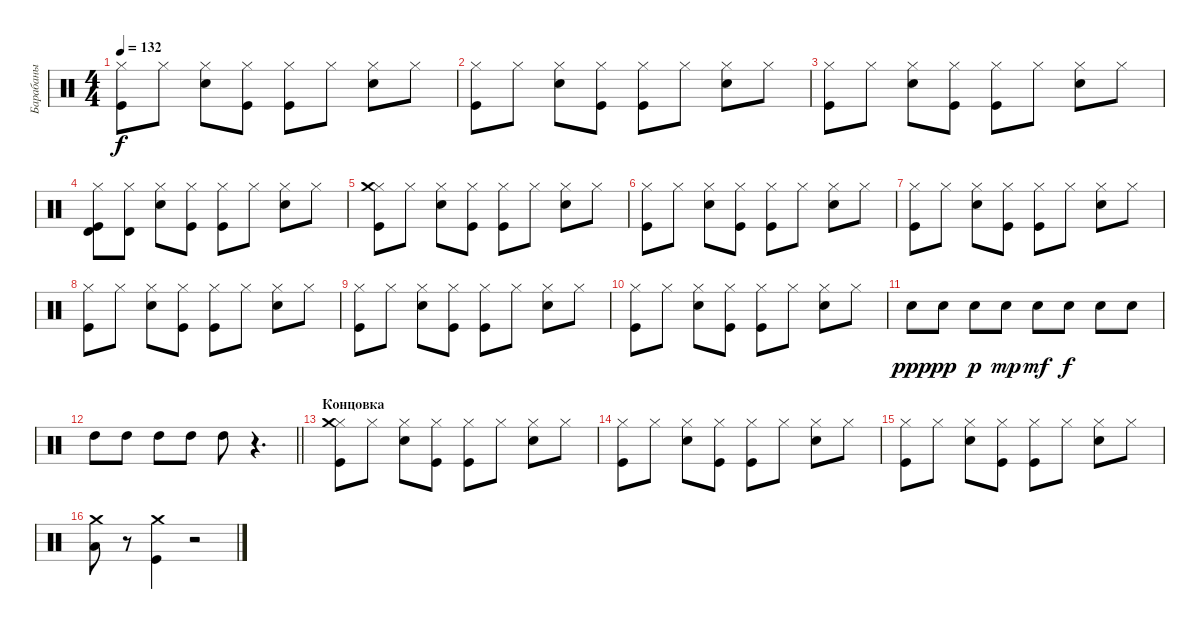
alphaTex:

\track ("Барабаны" "Барабаны") {instrument percussion}
\staff {score}
\articulation defaults
\ts (4 4)
\tempo 132
\clef neutral
\ks c
("Kick (hit)" "Hi-Hat (closed)").8{dy f} "Hi-Hat (closed)".8 ("Snare (hit) 2" "Hi-Hat (closed)").8 ("Kick (hit)" "Hi-Hat (closed)").8 ("Kick (hit)" "Hi-Hat (closed)").8 "Hi-Hat (closed)".8 ("Snare (hit) 2" "Hi-Hat (closed)").8 "Hi-Hat (closed)".8 |
("Kick (hit)" "Hi-Hat (closed)").8 "Hi-Hat (closed)".8 ("Snare (hit) 2" "Hi-Hat (closed)").8 ("Kick (hit)" "Hi-Hat (closed)").8 ("Kick (hit)" "Hi-Hat (closed)").8 "Hi-Hat (closed)".8 ("Snare (hit) 2" "Hi-Hat (closed)").8 "Hi-Hat (closed)".8 |
("Kick (hit)" "Hi-Hat (closed)").8 "Hi-Hat (closed)".8 ("Snare (hit) 2" "Hi-Hat (closed)").8 ("Kick (hit)" "Hi-Hat (closed)").8 ("Kick (hit)" "Hi-Hat (closed)").8 "Hi-Hat (closed)".8 ("Snare (hit) 2" "Hi-Hat (closed)").8 "Hi-Hat (closed)".8 |
("Kick (hit)" "Hi-Hat (closed)" "Timbale high (hit)").8 ("Hi-Hat (closed)" "Timbale high (hit)").8 ("Snare (hit) 2" "Hi-Hat (closed)").8 ("Kick (hit)" "Hi-Hat (closed)").8 ("Kick (hit)" "Hi-Hat (closed)").8 "Hi-Hat (closed)".8 ("Snare (hit) 2" "Hi-Hat (closed)").8 "Hi-Hat (closed)".8 |
("Kick (hit)" "Hi-Hat (closed)" "Crash medium (hit)").8 "Hi-Hat (closed)".8 ("Snare (hit) 2" "Hi-Hat (closed)").8 ("Kick (hit)" "Hi-Hat (closed)").8 ("Kick (hit)" "Hi-Hat (closed)").8 "Hi-Hat (closed)".8 ("Snare (hit) 2" "Hi-Hat (closed)").8 "Hi-Hat (closed)".8 |
("Kick (hit)" "Hi-Hat (closed)").8 "Hi-Hat (closed)".8 ("Snare (hit) 2" "Hi-Hat (closed)").8 ("Kick (hit)" "Hi-Hat (closed)").8 ("Kick (hit)" "Hi-Hat (closed)").8 "Hi-Hat (closed)".8 ("Snare (hit) 2" "Hi-Hat (closed)").8 "Hi-Hat (closed)".8 |
("Kick (hit)" "Hi-Hat (closed)").8 "Hi-Hat (closed)".8 ("Snare (hit) 2" "Hi-Hat (closed)").8 ("Kick (hit)" "Hi-Hat (closed)").8 ("Kick (hit)" "Hi-Hat (closed)").8 "Hi-Hat (closed)".8 ("Snare (hit) 2" "Hi-Hat (closed)").8 "Hi-Hat (closed)".8 |
("Kick (hit)" "Hi-Hat (closed)").8 "Hi-Hat (closed)".8 ("Snare (hit) 2" "Hi-Hat (closed)").8 ("Kick (hit)" "Hi-Hat (closed)").8 ("Kick (hit)" "Hi-Hat (closed)").8 "Hi-Hat (closed)".8 ("Snare (hit) 2" "Hi-Hat (closed)").8 "Hi-Hat (closed)".8 |
("Kick (hit)" "Hi-Hat (closed)").8 "Hi-Hat (closed)".8 ("Snare (hit) 2" "Hi-Hat (closed)").8 ("Kick (hit)" "Hi-Hat (closed)").8 ("Kick (hit)" "Hi-Hat (closed)").8 "Hi-Hat (closed)".8 ("Snare (hit) 2" "Hi-Hat (closed)").8 "Hi-Hat (closed)".8 |
("Kick (hit)" "Hi-Hat (closed)").8 "Hi-Hat (closed)".8 ("Snare (hit) 2" "Hi-Hat (closed)").8 ("Kick (hit)" "Hi-Hat (closed)").8 ("Kick (hit)" "Hi-Hat (closed)").8 "Hi-Hat (closed)".8 ("Snare (hit) 2" "Hi-Hat (closed)").8 "Hi-Hat (closed)".8 |
"Snare (hit) 2".8{dy ppp} "Snare (hit) 2".8{dy pp} "Snare (hit) 2".8{dy p} "Snare (hit) 2".8{dy mp} "Snare (hit) 2".8{dy mf} "Snare (hit) 2".8{dy f} "Snare (hit) 2".8 "Snare (hit) 2".8 |
\barLineRight lightlight "High Tom (hit)".8 "High Tom (hit)".8 "High Tom (hit)".8 "High Tom (hit)".8 "High Tom (hit)".8
r.4{d} |
\section ("" "Концовка")
("Kick (hit)" "Hi-Hat (closed)" "Crash medium (hit)").8 "Hi-Hat (closed)".8 ("Snare (hit) 2" "Hi-Hat (closed)").8 ("Kick (hit)" "Hi-Hat (closed)").8 ("Kick (hit)" "Hi-Hat (closed)").8 "Hi-Hat (closed)".8 ("Snare (hit) 2" "Hi-Hat (closed)").8 "Hi-Hat (closed)".8 |
("Kick (hit)" "Hi-Hat (closed)").8 "Hi-Hat (closed)".8 ("Snare (hit) 2" "Hi-Hat (closed)").8 ("Kick (hit)" "Hi-Hat (closed)").8 ("Kick (hit)" "Hi-Hat (closed)").8 "Hi-Hat (closed)".8 ("Snare (hit) 2" "Hi-Hat (closed)").8 "Hi-Hat (closed)".8 |
("Kick (hit)" "Hi-Hat (closed)").8 "Hi-Hat (closed)".8 ("Snare (hit) 2" "Hi-Hat (closed)").8 ("Kick (hit)" "Hi-Hat (closed)").8 ("Kick (hit)" "Hi-Hat (closed)").8 "Hi-Hat (closed)".8 ("Snare (hit) 2" "Hi-Hat (closed)").8 "Hi-Hat (closed)".8 |
("Low Floor Tom (hit)" "Crash medium (hit)").8 r.8 ("Kick (hit)" "Crash medium (hit)").4 r.2
